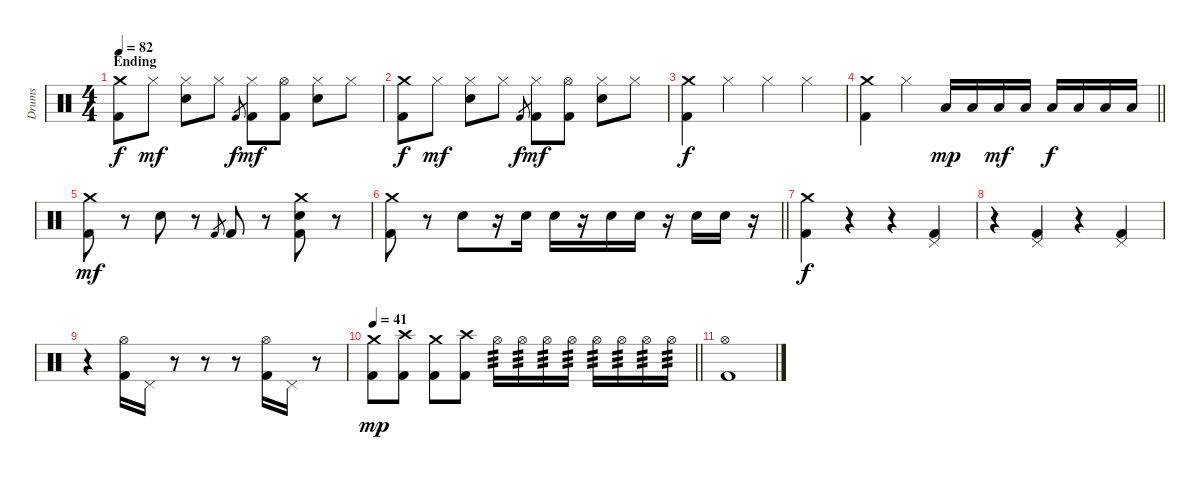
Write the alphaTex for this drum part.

\track ("Drums" "Drums") {instrument percussion}
\staff {score}
\articulation defaults
\ts (4 4)
\section ("" "Ending")
\tempo 82
\clef neutral
\ks c
("Crash medium (hit)" "Kick (hit) 2").8{dy f} "Hi-Hat (closed)".8{dy mf} ("Hi-Hat (closed)" "Snare (hit) 2").8 "Hi-Hat (closed)".8 "Kick (hit) 2".8{gr dy f} ("Hi-Hat (closed)" "Kick (hit) 2").8{dy mf} ("Hi-Hat (open)" "Kick (hit) 2").8 ("Hi-Hat (closed)" "Snare (hit) 2").8 "Hi-Hat (closed)".8 |
("Crash medium (hit)" "Kick (hit) 2").8{dy f} "Hi-Hat (closed)".8{dy mf} ("Hi-Hat (closed)" "Snare (hit) 2").8 "Hi-Hat (closed)".8 "Kick (hit) 2".8{gr dy f} ("Hi-Hat (closed)" "Kick (hit) 2").8{dy mf} ("Hi-Hat (open)" "Kick (hit) 2").8 ("Hi-Hat (closed)" "Snare (hit) 2").8 "Hi-Hat (closed)".8 |
("Crash medium (hit)" "Kick (hit) 2").4{dy f} "Hi-Hat (closed)".4 "Hi-Hat (closed)".4 "Hi-Hat (closed)".4 |
\barLineRight lightlight
("Crash medium (hit)" "Kick (hit) 2").4 "Hi-Hat (closed)".4 "Low Floor Tom (hit)".16{dy mp} "Low Floor Tom (hit)".16 "Low Floor Tom (hit)".16{dy mf} "Low Floor Tom (hit)".16 "Low Floor Tom (hit)".16{dy f} "Low Floor Tom (hit)".16 "Low Floor Tom (hit)".16 "Low Floor Tom (hit)".16 |
("Crash medium (hit)" "Kick (hit) 2").8{dy mf} r.8 "Snare (hit) 2".8 r.8 "Kick (hit) 2".8{gr} "Kick (hit) 2".8 r.8 ("Crash medium (hit)" "Snare (hit) 2" "Kick (hit) 2").8 r.8 |
\barLineRight lightlight
("Crash medium (hit)" "Kick (hit) 2").8 r.8 "Snare (hit) 2".8 r.16 "Snare (hit) 2".16 "Snare (hit) 2".16 r.16 "Snare (hit) 2".16 "Snare (hit) 2".16 r.16 "Snare (hit) 2".16 "Snare (hit) 2".16 r.16 |
("Crash medium (hit)" "Kick (hit) 2").4{dy f} r.4 r.4 ("Pedal Hi-Hat (hit)" "Kick (hit) 2").4 |
r.4 ("Pedal Hi-Hat (hit)" "Kick (hit) 2").4 r.4 ("Pedal Hi-Hat (hit)" "Kick (hit) 2").4 |
r.4 ("Hi-Hat (open)" "Kick (hit) 2").16 "Pedal Hi-Hat (hit)".16 r.8 r.8 r.8 ("Hi-Hat (open)" "Kick (hit) 2").16 "Pedal Hi-Hat (hit)".16 r.8 |
\tempo 41
\barLineRight lightlight
("Crash medium (hit)" "Kick (hit) 2").8{dy mp} ("Crash high (hit)" "Kick (hit) 2").8 ("Crash medium (hit)" "Kick (hit) 2").8 ("Crash high (hit)" "Kick (hit) 2").8 "Hi-Hat (open)".16{tp 3} "Hi-Hat (open)".16{tp 3} "Hi-Hat (open)".16{tp 3} "Hi-Hat (open)".16{tp 3} "Hi-Hat (open)".16{tp 3} "Hi-Hat (open)".16{tp 3} "Hi-Hat (open)".16{tp 3} "Hi-Hat (open)".16{tp 3} |
("Hi-Hat (open)" "Kick (hit) 2").1{volume 2}
